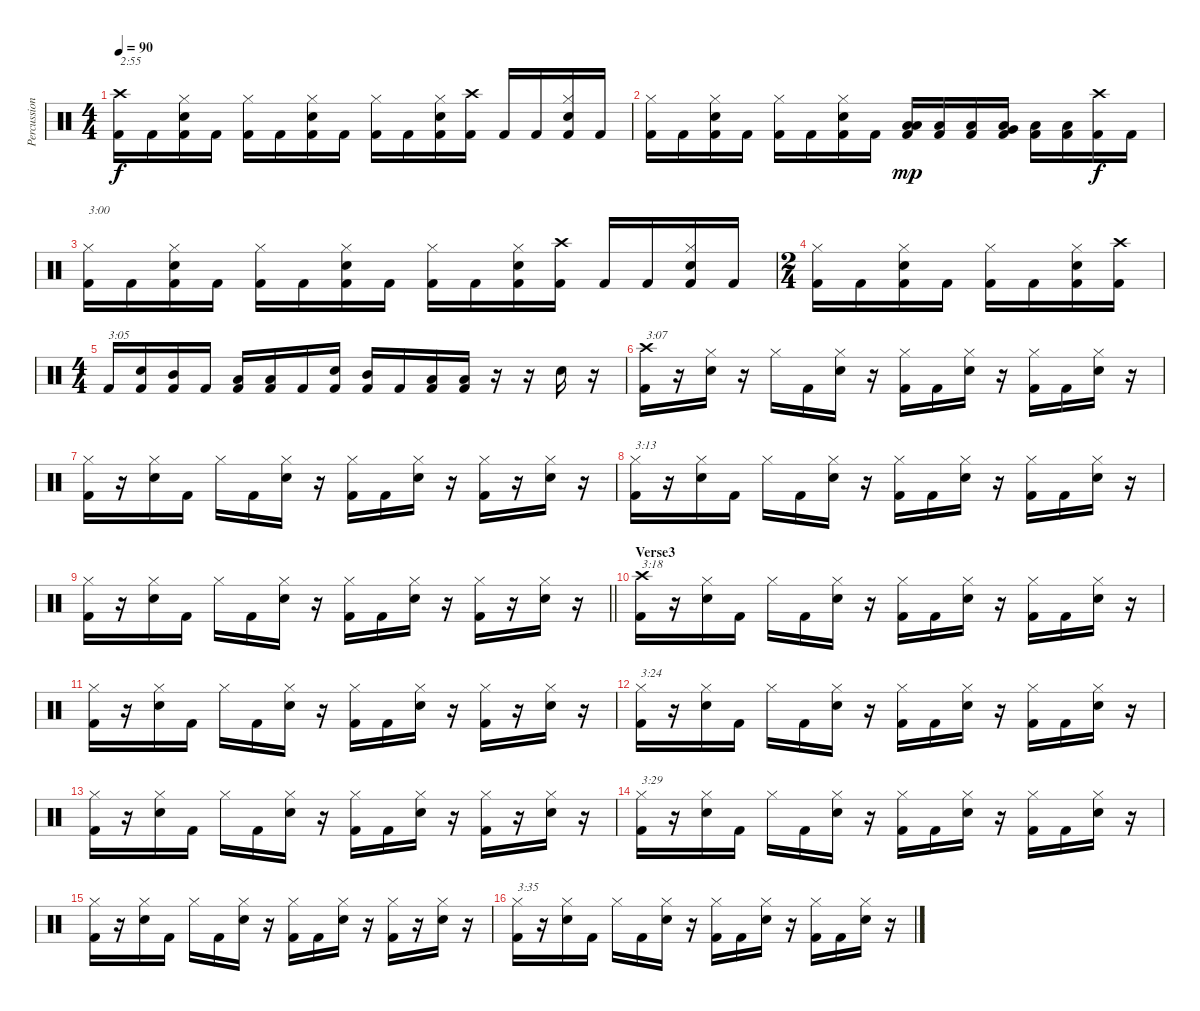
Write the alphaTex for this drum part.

\track ("Percussion" "Percussion") {instrument percussion}
\staff {score}
\articulation defaults
\ts (4 4)
\tempo 90
\clef neutral
\ks c
("Crash high (hit)" "Kick (hit) 2").16{txt "2:55" dy f} "Kick (hit) 2".16 ("Hi-Hat (closed)" "Snare (hit) 2" "Kick (hit) 2").16 "Kick (hit) 2".16 ("Hi-Hat (closed)" "Kick (hit) 2").16 "Kick (hit) 2".16 ("Hi-Hat (closed)" "Snare (hit) 2" "Kick (hit) 2").16 "Kick (hit) 2".16 ("Hi-Hat (closed)" "Kick (hit) 2").16 "Kick (hit) 2".16 ("Hi-Hat (closed)" "Snare (hit) 2" "Kick (hit) 2").16 ("Crash high (hit)" "Kick (hit) 2").16 "Kick (hit) 2".16 "Kick (hit) 2".16 ("Hi-Hat (closed)" "Snare (hit) 2" "Kick (hit) 2").16 "Kick (hit) 2".16 |
("Hi-Hat (closed)" "Kick (hit) 2").16 "Kick (hit) 2".16 ("Hi-Hat (closed)" "Snare (hit) 2" "Kick (hit) 2").16 "Kick (hit) 2".16 ("Hi-Hat (closed)" "Kick (hit) 2").16 "Kick (hit) 2".16 ("Hi-Hat (closed)" "Snare (hit) 2" "Kick (hit) 2").16 "Kick (hit) 2".16 ("Low Tom (hit)" "Low Floor Tom (hit)" "Kick (hit) 2").16{dy mp} ("Low Floor Tom (hit)" "Kick (hit) 2").16 ("Low Floor Tom (hit)" "Kick (hit) 2").16 ("Very Low Tom (hit)" "Low Floor Tom (hit)" "Kick (hit) 2").16 ("Low Floor Tom (hit)" "Kick (hit) 2").16 ("Low Floor Tom (hit)" "Kick (hit) 2").16 ("Crash high (hit)" "Kick (hit) 2").16{dy f} "Kick (hit) 2".16 |
("Hi-Hat (closed)" "Kick (hit) 2").16{txt "3:00"} "Kick (hit) 2".16 ("Hi-Hat (closed)" "Snare (hit) 2" "Kick (hit) 2").16 "Kick (hit) 2".16 ("Hi-Hat (closed)" "Kick (hit) 2").16 "Kick (hit) 2".16 ("Hi-Hat (closed)" "Snare (hit) 2" "Kick (hit) 2").16 "Kick (hit) 2".16 ("Hi-Hat (closed)" "Kick (hit) 2").16 "Kick (hit) 2".16 ("Hi-Hat (closed)" "Snare (hit) 2" "Kick (hit) 2").16 ("Crash high (hit)" "Kick (hit) 2").16 "Kick (hit) 2".16 "Kick (hit) 2".16 ("Hi-Hat (closed)" "Snare (hit) 2" "Kick (hit) 2").16 "Kick (hit) 2".16 |
\ts (2 4)
("Hi-Hat (closed)" "Kick (hit) 2").16 "Kick (hit) 2".16 ("Hi-Hat (closed)" "Snare (hit) 2" "Kick (hit) 2").16 "Kick (hit) 2".16 ("Hi-Hat (closed)" "Kick (hit) 2").16 "Kick (hit) 2".16 ("Hi-Hat (closed)" "Snare (hit) 2" "Kick (hit) 2").16 ("Crash high (hit)" "Kick (hit) 2").16 |
\ts (4 4)
"Kick (hit) 2".16{txt "3:05"} ("Snare (hit) 2" "Kick (hit) 2").16 ("Mid Tom (hit)" "Kick (hit) 2").16 "Kick (hit) 2".16 ("Low Tom (hit)" "Kick (hit) 2").16 ("Low Tom (hit)" "Kick (hit) 2").16 "Kick (hit) 2".16 ("Snare (hit) 2" "Kick (hit) 2").16 ("Mid Tom (hit)" "Kick (hit) 2").16 "Kick (hit) 2".16 ("Low Tom (hit)" "Kick (hit) 2").16 ("Low Tom (hit)" "Kick (hit) 2").16 r.16 r.16 "Snare (hit) 2".16 r.16 |
("Crash high (hit)" "Kick (hit) 2").16{txt "3:07"} r.16 ("Hi-Hat (closed)" "Snare (hit) 2").16 r.16 "Hi-Hat (closed)".16 "Kick (hit) 2".16 ("Hi-Hat (closed)" "Snare (hit) 2").16 r.16 ("Hi-Hat (closed)" "Kick (hit) 2").16 "Kick (hit) 2".16 ("Hi-Hat (closed)" "Snare (hit) 2").16 r.16 ("Hi-Hat (closed)" "Kick (hit) 2").16 "Kick (hit) 2".16 ("Hi-Hat (closed)" "Snare (hit) 2").16 r.16 |
("Hi-Hat (closed)" "Kick (hit) 2").16 r.16 ("Hi-Hat (closed)" "Snare (hit) 2").16 "Kick (hit) 2".16 "Hi-Hat (closed)".16 "Kick (hit) 2".16 ("Hi-Hat (closed)" "Snare (hit) 2").16 r.16 ("Hi-Hat (closed)" "Kick (hit) 2").16 "Kick (hit) 2".16 ("Hi-Hat (closed)" "Snare (hit) 2").16 r.16 ("Hi-Hat (closed)" "Kick (hit) 2").16 r.16 ("Hi-Hat (closed)" "Snare (hit) 2").16 r.16 |
("Hi-Hat (closed)" "Kick (hit) 2").16{txt "3:13"} r.16 ("Hi-Hat (closed)" "Snare (hit) 2").16 "Kick (hit) 2".16 "Hi-Hat (closed)".16 "Kick (hit) 2".16 ("Hi-Hat (closed)" "Snare (hit) 2").16 r.16 ("Hi-Hat (closed)" "Kick (hit) 2").16 "Kick (hit) 2".16 ("Hi-Hat (closed)" "Snare (hit) 2").16 r.16 ("Hi-Hat (closed)" "Kick (hit) 2").16 "Kick (hit) 2".16 ("Hi-Hat (closed)" "Snare (hit) 2").16 r.16 |
\barLineRight lightlight
("Hi-Hat (closed)" "Kick (hit) 2").16 r.16 ("Hi-Hat (closed)" "Snare (hit) 2").16 "Kick (hit) 2".16 "Hi-Hat (closed)".16 "Kick (hit) 2".16 ("Hi-Hat (closed)" "Snare (hit) 2").16 r.16 ("Hi-Hat (closed)" "Kick (hit) 2").16 "Kick (hit) 2".16 ("Hi-Hat (closed)" "Snare (hit) 2").16 r.16 ("Hi-Hat (closed)" "Kick (hit) 2").16 r.16 ("Hi-Hat (closed)" "Snare (hit) 2").16 r.16 |
\section ("" "Verse3")
("Crash high (hit)" "Kick (hit) 2").16{txt "3:18"} r.16 ("Hi-Hat (closed)" "Snare (hit) 2").16 "Kick (hit) 2".16 "Hi-Hat (closed)".16 "Kick (hit) 2".16 ("Hi-Hat (closed)" "Snare (hit) 2").16 r.16 ("Hi-Hat (closed)" "Kick (hit) 2").16 "Kick (hit) 2".16 ("Hi-Hat (closed)" "Snare (hit) 2").16 r.16 ("Hi-Hat (closed)" "Kick (hit) 2").16 "Kick (hit) 2".16 ("Hi-Hat (closed)" "Snare (hit) 2").16 r.16 |
("Hi-Hat (closed)" "Kick (hit) 2").16 r.16 ("Hi-Hat (closed)" "Snare (hit) 2").16 "Kick (hit) 2".16 "Hi-Hat (closed)".16 "Kick (hit) 2".16 ("Hi-Hat (closed)" "Snare (hit) 2").16 r.16 ("Hi-Hat (closed)" "Kick (hit) 2").16 "Kick (hit) 2".16 ("Hi-Hat (closed)" "Snare (hit) 2").16 r.16 ("Hi-Hat (closed)" "Kick (hit) 2").16 r.16 ("Hi-Hat (closed)" "Snare (hit) 2").16 r.16 |
("Hi-Hat (closed)" "Kick (hit) 2").16{txt "3:24"} r.16 ("Hi-Hat (closed)" "Snare (hit) 2").16 "Kick (hit) 2".16 "Hi-Hat (closed)".16 "Kick (hit) 2".16 ("Hi-Hat (closed)" "Snare (hit) 2").16 r.16 ("Hi-Hat (closed)" "Kick (hit) 2").16 "Kick (hit) 2".16 ("Hi-Hat (closed)" "Snare (hit) 2").16 r.16 ("Hi-Hat (closed)" "Kick (hit) 2").16 "Kick (hit) 2".16 ("Hi-Hat (closed)" "Snare (hit) 2").16 r.16 |
("Hi-Hat (closed)" "Kick (hit) 2").16 r.16 ("Hi-Hat (closed)" "Snare (hit) 2").16 "Kick (hit) 2".16 "Hi-Hat (closed)".16 "Kick (hit) 2".16 ("Hi-Hat (closed)" "Snare (hit) 2").16 r.16 ("Hi-Hat (closed)" "Kick (hit) 2").16 "Kick (hit) 2".16 ("Hi-Hat (closed)" "Snare (hit) 2").16 r.16 ("Hi-Hat (closed)" "Kick (hit) 2").16 r.16 ("Hi-Hat (closed)" "Snare (hit) 2").16 r.16 |
("Hi-Hat (closed)" "Kick (hit) 2").16{txt "3:29"} r.16 ("Hi-Hat (closed)" "Snare (hit) 2").16 "Kick (hit) 2".16 "Hi-Hat (closed)".16 "Kick (hit) 2".16 ("Hi-Hat (closed)" "Snare (hit) 2").16 r.16 ("Hi-Hat (closed)" "Kick (hit) 2").16 "Kick (hit) 2".16 ("Hi-Hat (closed)" "Snare (hit) 2").16 r.16 ("Hi-Hat (closed)" "Kick (hit) 2").16 "Kick (hit) 2".16 ("Hi-Hat (closed)" "Snare (hit) 2").16 r.16 |
("Hi-Hat (closed)" "Kick (hit) 2").16 r.16 ("Hi-Hat (closed)" "Snare (hit) 2").16 "Kick (hit) 2".16 "Hi-Hat (closed)".16 "Kick (hit) 2".16 ("Hi-Hat (closed)" "Snare (hit) 2").16 r.16 ("Hi-Hat (closed)" "Kick (hit) 2").16 "Kick (hit) 2".16 ("Hi-Hat (closed)" "Snare (hit) 2").16 r.16 ("Hi-Hat (closed)" "Kick (hit) 2").16 r.16 ("Hi-Hat (closed)" "Snare (hit) 2").16 r.16 |
("Hi-Hat (closed)" "Kick (hit) 2").16{txt "3:35"} r.16 ("Hi-Hat (closed)" "Snare (hit) 2").16 "Kick (hit) 2".16 "Hi-Hat (closed)".16 "Kick (hit) 2".16 ("Hi-Hat (closed)" "Snare (hit) 2").16 r.16 ("Hi-Hat (closed)" "Kick (hit) 2").16 "Kick (hit) 2".16 ("Hi-Hat (closed)" "Snare (hit) 2").16 r.16 ("Hi-Hat (closed)" "Kick (hit) 2").16 "Kick (hit) 2".16 ("Hi-Hat (closed)" "Snare (hit) 2").16 r.16
